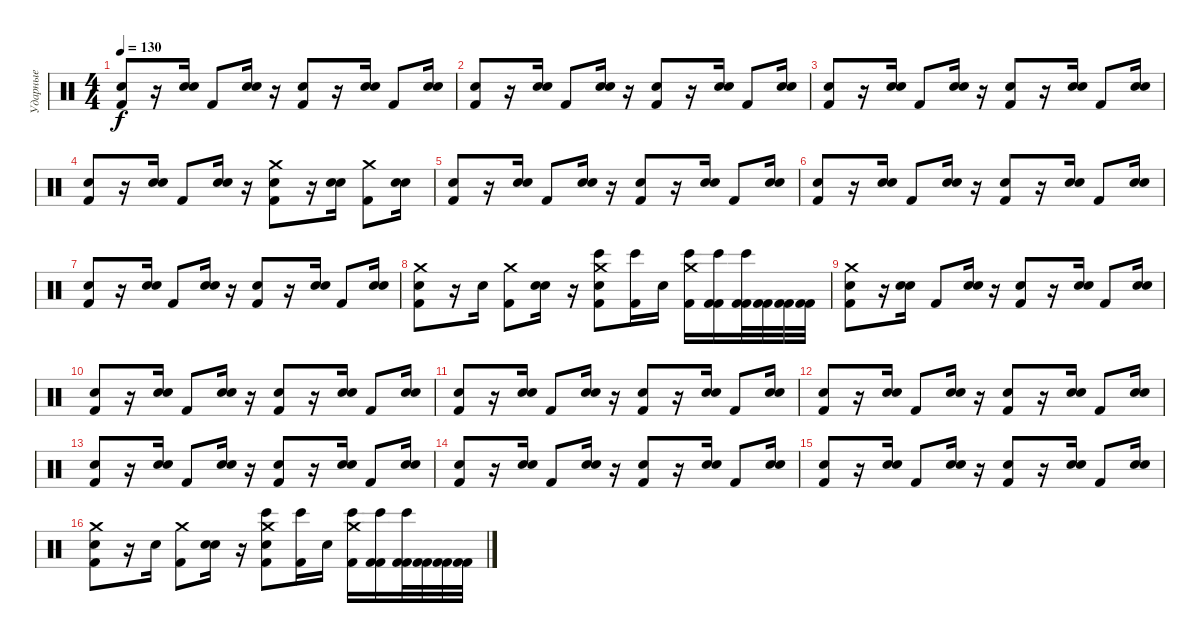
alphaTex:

\track ("Ударные" "Ударные") {instrument percussion}
\staff {score}
\articulation defaults
\ts (4 4)
\tempo 130
\clef neutral
\ks c
("Kick (hit) 2" "Hand Clap (hit)").8{dy f} r.16 ("Electric Snare (hit)" "Hand Clap (hit)").16 "Kick (hit) 2".8 ("Electric Snare (hit)" "Hand Clap (hit)").16 r.16 ("Kick (hit) 2" "Hand Clap (hit)").8 r.16 ("Electric Snare (hit)" "Hand Clap (hit)").16 "Kick (hit) 2".8 ("Electric Snare (hit)" "Hand Clap (hit)").16 |
("Kick (hit) 2" "Hand Clap (hit)").8 r.16 ("Electric Snare (hit)" "Hand Clap (hit)").16 "Kick (hit) 2".8 ("Electric Snare (hit)" "Hand Clap (hit)").16 r.16 ("Kick (hit) 2" "Hand Clap (hit)").8 r.16 ("Electric Snare (hit)" "Hand Clap (hit)").16 "Kick (hit) 2".8 ("Electric Snare (hit)" "Hand Clap (hit)").16 |
("Kick (hit) 2" "Hand Clap (hit)").8 r.16 ("Electric Snare (hit)" "Hand Clap (hit)").16 "Kick (hit) 2".8 ("Electric Snare (hit)" "Hand Clap (hit)").16 r.16 ("Kick (hit) 2" "Hand Clap (hit)").8 r.16 ("Electric Snare (hit)" "Hand Clap (hit)").16 "Kick (hit) 2".8 ("Electric Snare (hit)" "Hand Clap (hit)").16 |
("Kick (hit) 2" "Hand Clap (hit)").8 r.16 ("Electric Snare (hit)" "Hand Clap (hit)").16 "Kick (hit) 2".8 ("Electric Snare (hit)" "Hand Clap (hit)").16 r.16 ("Kick (hit) 2" "Hand Clap (hit)" "Crash medium (hit)").8 r.16 ("Electric Snare (hit)" "Hand Clap (hit)").16 ("Kick (hit) 2" "Crash medium (hit)").8 ("Electric Snare (hit)" "Hand Clap (hit)").16 |
("Kick (hit) 2" "Hand Clap (hit)").8 r.16 ("Electric Snare (hit)" "Hand Clap (hit)").16 "Kick (hit) 2".8 ("Electric Snare (hit)" "Hand Clap (hit)").16 r.16 ("Kick (hit) 2" "Hand Clap (hit)").8 r.16 ("Electric Snare (hit)" "Hand Clap (hit)").16 "Kick (hit) 2".8 ("Electric Snare (hit)" "Hand Clap (hit)").16 |
("Kick (hit) 2" "Hand Clap (hit)").8 r.16 ("Electric Snare (hit)" "Hand Clap (hit)").16 "Kick (hit) 2".8 ("Electric Snare (hit)" "Hand Clap (hit)").16 r.16 ("Kick (hit) 2" "Hand Clap (hit)").8 r.16 ("Electric Snare (hit)" "Hand Clap (hit)").16 "Kick (hit) 2".8 ("Electric Snare (hit)" "Hand Clap (hit)").16 |
("Kick (hit) 2" "Hand Clap (hit)").8 r.16 ("Electric Snare (hit)" "Hand Clap (hit)").16 "Kick (hit) 2".8 ("Electric Snare (hit)" "Hand Clap (hit)").16 r.16 ("Kick (hit) 2" "Hand Clap (hit)").8 r.16 ("Electric Snare (hit)" "Hand Clap (hit)").16 "Kick (hit) 2".8 ("Electric Snare (hit)" "Hand Clap (hit)").16 |
("Kick (hit) 2" "Hand Clap (hit)" "Crash medium (hit)").8 r.16 "Hand Clap (hit)".16 ("Kick (hit) 2" "Crash medium (hit)").8 ("Electric Snare (hit)" "Hand Clap (hit)").16 r.16 ("Kick (hit) 2" "Hand Clap (hit)" "Bongo High (hit)" "Crash medium (hit)").8 ("Kick (hit) 2" "Bongo High (hit)").16 "Hand Clap (hit)".16 ("Kick (hit) 2" "Bongo High (hit)" "Crash medium (hit)").16 ("Kick (hit) 2" "Bongo High (hit)" "Kick (hit) 2").16 ("Kick (hit) 2" "Bongo High (hit)" "Kick (hit) 2").32 ("Kick (hit) 2" "Kick (hit) 2").32 ("Kick (hit) 2" "Kick (hit) 2").32 ("Kick (hit) 2" "Kick (hit) 2").32 |
("Kick (hit) 2" "Hand Clap (hit)" "Crash medium (hit)").8 r.16 ("Electric Snare (hit)" "Hand Clap (hit)").16 "Kick (hit) 2".8 ("Electric Snare (hit)" "Hand Clap (hit)").16 r.16 ("Kick (hit) 2" "Hand Clap (hit)").8 r.16 ("Electric Snare (hit)" "Hand Clap (hit)").16 "Kick (hit) 2".8 ("Electric Snare (hit)" "Hand Clap (hit)").16 |
("Kick (hit) 2" "Hand Clap (hit)").8 r.16 ("Electric Snare (hit)" "Hand Clap (hit)").16 "Kick (hit) 2".8 ("Electric Snare (hit)" "Hand Clap (hit)").16 r.16 ("Kick (hit) 2" "Hand Clap (hit)").8 r.16 ("Electric Snare (hit)" "Hand Clap (hit)").16 "Kick (hit) 2".8 ("Electric Snare (hit)" "Hand Clap (hit)").16 |
("Kick (hit) 2" "Hand Clap (hit)").8 r.16 ("Electric Snare (hit)" "Hand Clap (hit)").16 "Kick (hit) 2".8 ("Electric Snare (hit)" "Hand Clap (hit)").16 r.16 ("Kick (hit) 2" "Hand Clap (hit)").8 r.16 ("Electric Snare (hit)" "Hand Clap (hit)").16 "Kick (hit) 2".8 ("Electric Snare (hit)" "Hand Clap (hit)").16 |
("Kick (hit) 2" "Hand Clap (hit)").8 r.16 ("Electric Snare (hit)" "Hand Clap (hit)").16 "Kick (hit) 2".8 ("Electric Snare (hit)" "Hand Clap (hit)").16 r.16 ("Kick (hit) 2" "Hand Clap (hit)").8 r.16 ("Electric Snare (hit)" "Hand Clap (hit)").16 "Kick (hit) 2".8 ("Electric Snare (hit)" "Hand Clap (hit)").16 |
("Kick (hit) 2" "Hand Clap (hit)").8 r.16 ("Electric Snare (hit)" "Hand Clap (hit)").16 "Kick (hit) 2".8 ("Electric Snare (hit)" "Hand Clap (hit)").16 r.16 ("Kick (hit) 2" "Hand Clap (hit)").8 r.16 ("Electric Snare (hit)" "Hand Clap (hit)").16 "Kick (hit) 2".8 ("Electric Snare (hit)" "Hand Clap (hit)").16 |
("Kick (hit) 2" "Hand Clap (hit)").8 r.16 ("Electric Snare (hit)" "Hand Clap (hit)").16 "Kick (hit) 2".8 ("Electric Snare (hit)" "Hand Clap (hit)").16 r.16 ("Kick (hit) 2" "Hand Clap (hit)").8 r.16 ("Electric Snare (hit)" "Hand Clap (hit)").16 "Kick (hit) 2".8 ("Electric Snare (hit)" "Hand Clap (hit)").16 |
("Kick (hit) 2" "Hand Clap (hit)").8 r.16 ("Electric Snare (hit)" "Hand Clap (hit)").16 "Kick (hit) 2".8 ("Electric Snare (hit)" "Hand Clap (hit)").16 r.16 ("Kick (hit) 2" "Hand Clap (hit)").8 r.16 ("Electric Snare (hit)" "Hand Clap (hit)").16 "Kick (hit) 2".8 ("Electric Snare (hit)" "Hand Clap (hit)").16 |
("Kick (hit) 2" "Hand Clap (hit)" "Crash medium (hit)").8 r.16 "Hand Clap (hit)".16 ("Kick (hit) 2" "Crash medium (hit)").8 ("Electric Snare (hit)" "Hand Clap (hit)").16 r.16 ("Kick (hit) 2" "Hand Clap (hit)" "Bongo High (hit)" "Crash medium (hit)").8 ("Kick (hit) 2" "Bongo High (hit)").16 "Hand Clap (hit)".16 ("Kick (hit) 2" "Bongo High (hit)" "Crash medium (hit)").16 ("Kick (hit) 2" "Bongo High (hit)" "Kick (hit) 2").16 ("Kick (hit) 2" "Bongo High (hit)" "Kick (hit) 2").32 ("Kick (hit) 2" "Kick (hit) 2").32 ("Kick (hit) 2" "Kick (hit) 2").32 ("Kick (hit) 2" "Kick (hit) 2").32
